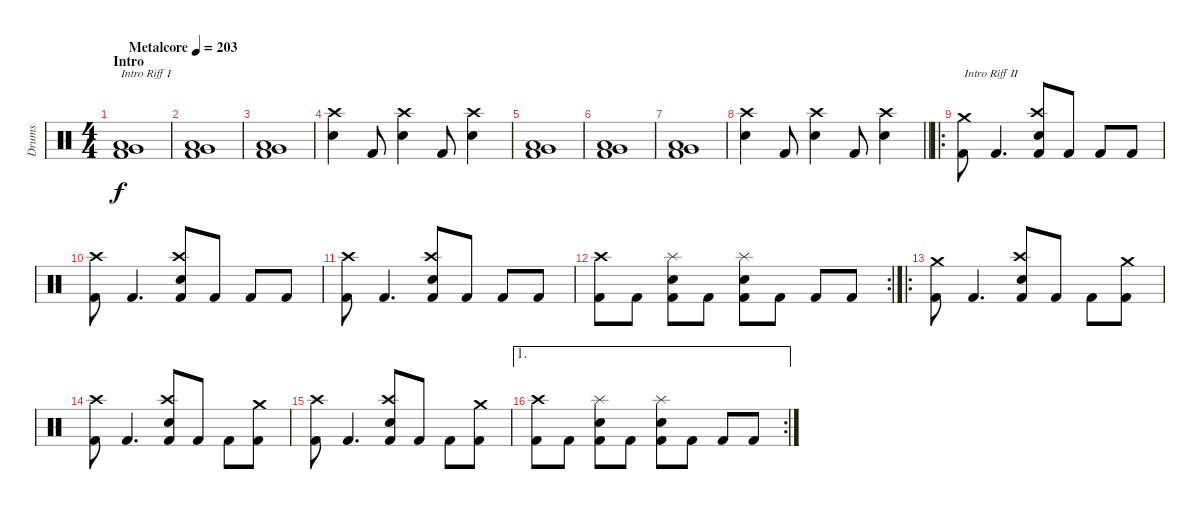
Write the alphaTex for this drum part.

\track ("Drums" "Drums") {instrument percussion}
\staff {score}
\articulation defaults
\ts (4 4)
\section ("" "Intro")
\tempo (203 "Metalcore")
\clef neutral
\ks c
("Very Low Tom (hit)" "Low Floor Tom (hit)" "Kick (hit) 2").1{txt "Intro Riff I" dy f volume 16 balance 8} |
("Very Low Tom (hit)" "Low Floor Tom (hit)" "Kick (hit) 2").1 |
("Very Low Tom (hit)" "Low Floor Tom (hit)" "Kick (hit) 2").1 |
("Crash high (hit)" "Electric Snare (hit)").4 "Kick (hit) 2".8 ("Crash high (hit)" "Electric Snare (hit)").4 "Kick (hit) 2".8 ("Crash high (hit)" "Electric Snare (hit)").4 |
("Very Low Tom (hit)" "Low Floor Tom (hit)" "Kick (hit) 2").1 |
("Very Low Tom (hit)" "Low Floor Tom (hit)" "Kick (hit) 2").1 |
("Very Low Tom (hit)" "Low Floor Tom (hit)" "Kick (hit) 2").1 |
\barLineRight lightlight
("Crash high (hit)" "Electric Snare (hit)").4 "Kick (hit) 2".8 ("Crash high (hit)" "Electric Snare (hit)").4 "Kick (hit) 2".8 ("Crash high (hit)" "Electric Snare (hit)").4 |
\ro
("Crash medium (hit)" "Kick (hit) 2").8{txt "Intro Riff II"} "Kick (hit) 2".4{d} ("Crash high (hit)" "Electric Snare (hit)" "Kick (hit) 2").8 "Kick (hit) 2".8 "Kick (hit) 2".8 "Kick (hit) 2".8 |
("Crash high (hit)" "Kick (hit) 2").8 "Kick (hit) 2".4{d} ("Crash high (hit)" "Electric Snare (hit)" "Kick (hit) 2").8 "Kick (hit) 2".8 "Kick (hit) 2".8 "Kick (hit) 2".8 |
("Crash high (hit)" "Kick (hit) 2").8 "Kick (hit) 2".4{d} ("Crash high (hit)" "Electric Snare (hit)" "Kick (hit) 2").8 "Kick (hit) 2".8 "Kick (hit) 2".8 "Kick (hit) 2".8 |
\rc 2
("Crash high (hit)" "Kick (hit) 2").8 "Kick (hit) 2".8 ("Splash (hit)" "Electric Snare (hit)" "Kick (hit) 2").8 "Kick (hit) 2".8 ("Splash (hit)" "Electric Snare (hit)" "Kick (hit) 2").8 "Kick (hit) 2".8 "Kick (hit) 2".8 "Kick (hit) 2".8 |
\ro
("Crash medium (hit)" "Kick (hit) 2").8 "Kick (hit) 2".4{d} ("Crash high (hit)" "Electric Snare (hit)" "Kick (hit) 2").8 "Kick (hit) 2".8 "Kick (hit) 2".8 ("Crash medium (hit)" "Kick (hit) 2").8 |
("Crash high (hit)" "Kick (hit) 2").8 "Kick (hit) 2".4{d} ("Crash high (hit)" "Electric Snare (hit)" "Kick (hit) 2").8 "Kick (hit) 2".8 "Kick (hit) 2".8 ("Crash medium (hit)" "Kick (hit) 2").8 |
("Crash high (hit)" "Kick (hit) 2").8 "Kick (hit) 2".4{d} ("Crash high (hit)" "Electric Snare (hit)" "Kick (hit) 2").8 "Kick (hit) 2".8 "Kick (hit) 2".8 ("Crash medium (hit)" "Kick (hit) 2").8 |
\ae 1
\rc 2
("Crash high (hit)" "Kick (hit) 2").8 "Kick (hit) 2".8 ("Splash (hit)" "Electric Snare (hit)" "Kick (hit) 2").8 "Kick (hit) 2".8 ("Splash (hit)" "Electric Snare (hit)" "Kick (hit) 2").8 "Kick (hit) 2".8 "Kick (hit) 2".8 "Kick (hit) 2".8
